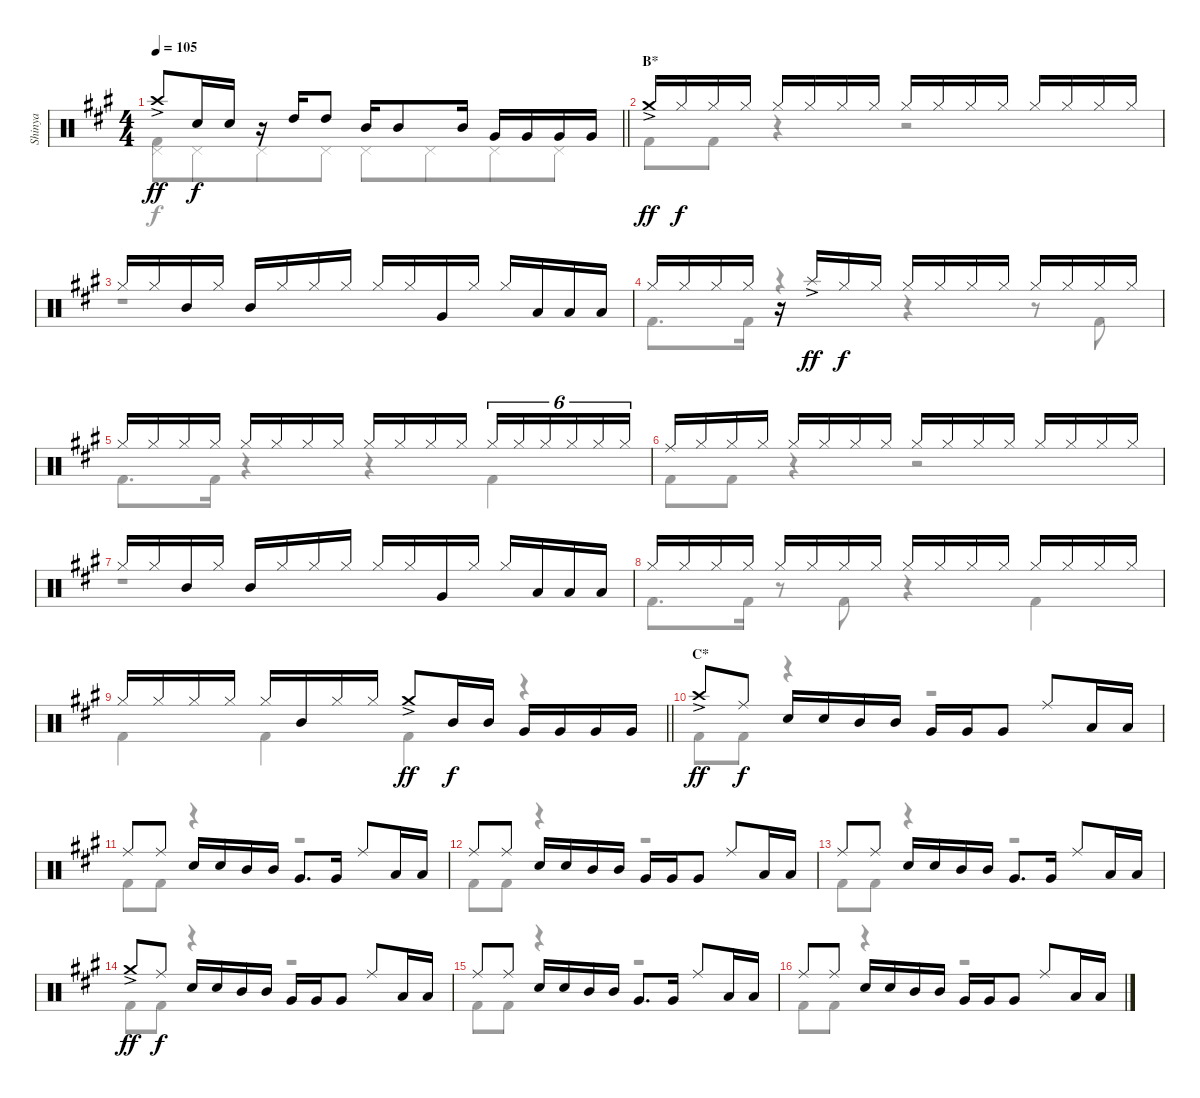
\track ("Shinya" "Shinya") {instrument percussion}
\staff {score}
\articulation defaults
\voice
\ts (4 4)
\tempo 105
\clef neutral
\barLineRight lightlight
\ks f#minor "Crash high (hit)"{ac}.8{dy ff} "Snare (hit) 2".16{dy f} "Snare (hit) 2".16
r.16 "High Tom (hit)".16 "High Tom (hit)".8 "Mid Tom (hit)".16 "Mid Tom (hit)".8 "Mid Tom (hit)".16 "Very Low Tom (hit)".16 "Very Low Tom (hit)".16 "Very Low Tom (hit)".16 "Very Low Tom (hit)".16 |
\section ("" "B*")
"Crash medium (hit)"{ac}.16{dy ff} "Hi-Hat (closed)".16{dy f} "Hi-Hat (closed)".16 "Hi-Hat (closed)".16 "Hi-Hat (closed)".16 "Hi-Hat (closed)".16 "Hi-Hat (closed)".16 "Hi-Hat (closed)".16 "Hi-Hat (closed)".16 "Hi-Hat (closed)".16 "Hi-Hat (closed)".16 "Hi-Hat (closed)".16 "Hi-Hat (closed)".16 "Hi-Hat (closed)".16 "Hi-Hat (closed)".16 "Hi-Hat (closed)".16 |
"Hi-Hat (closed)".16 "Hi-Hat (closed)".16 "Mid Tom (hit)".16 "Hi-Hat (closed)".16 "Mid Tom (hit)".16 "Hi-Hat (closed)".16 "Hi-Hat (closed)".16 "Hi-Hat (closed)".16 "Hi-Hat (closed)".16 "Hi-Hat (closed)".16 "Very Low Tom (hit)".16 "Hi-Hat (closed)".16 "Hi-Hat (closed)".16 "Low Floor Tom (hit)".16 "Low Floor Tom (hit)".16 "Low Floor Tom (hit)".16 |
"Hi-Hat (closed)".16 "Hi-Hat (closed)".16 "Hi-Hat (closed)".16 "Hi-Hat (closed)".16 r.16 "Splash (hit)"{ac}.16{dy ff} "Hi-Hat (closed)".16{dy f} "Hi-Hat (closed)".16 "Hi-Hat (closed)".16 "Hi-Hat (closed)".16 "Hi-Hat (closed)".16 "Hi-Hat (closed)".16 "Hi-Hat (closed)".16 "Hi-Hat (closed)".16 "Hi-Hat (closed)".16 "Hi-Hat (closed)".16 |
"Hi-Hat (closed)".16 "Hi-Hat (closed)".16 "Hi-Hat (closed)".16 "Hi-Hat (closed)".16 "Hi-Hat (closed)".16 "Hi-Hat (closed)".16 "Hi-Hat (closed)".16 "Hi-Hat (closed)".16 "Hi-Hat (closed)".16 "Hi-Hat (closed)".16 "Hi-Hat (closed)".16 "Hi-Hat (closed)".16 "Hi-Hat (closed)".16{tu (6 4)} "Hi-Hat (closed)".16{tu (6 4)} "Hi-Hat (closed)".16{tu (6 4)} "Hi-Hat (closed)".16{tu (6 4)} "Hi-Hat (closed)".16{tu (6 4)} "Hi-Hat (closed)".16{tu (6 4)} |
"Ride (middle)".16 "Hi-Hat (closed)".16 "Hi-Hat (closed)".16 "Hi-Hat (closed)".16 "Hi-Hat (closed)".16 "Hi-Hat (closed)".16 "Hi-Hat (closed)".16 "Hi-Hat (closed)".16 "Hi-Hat (closed)".16 "Hi-Hat (closed)".16 "Hi-Hat (closed)".16 "Hi-Hat (closed)".16 "Hi-Hat (closed)".16 "Hi-Hat (closed)".16 "Hi-Hat (closed)".16 "Hi-Hat (closed)".16 |
"Hi-Hat (closed)".16 "Hi-Hat (closed)".16 "Mid Tom (hit)".16 "Hi-Hat (closed)".16 "Mid Tom (hit)".16 "Hi-Hat (closed)".16 "Hi-Hat (closed)".16 "Hi-Hat (closed)".16 "Hi-Hat (closed)".16 "Hi-Hat (closed)".16 "Very Low Tom (hit)".16 "Hi-Hat (closed)".16 "Hi-Hat (closed)".16 "Low Floor Tom (hit)".16 "Low Floor Tom (hit)".16 "Low Floor Tom (hit)".16 |
"Hi-Hat (closed)".16 "Hi-Hat (closed)".16 "Hi-Hat (closed)".16 "Hi-Hat (closed)".16 "Hi-Hat (closed)".16 "Hi-Hat (closed)".16 "Hi-Hat (closed)".16 "Hi-Hat (closed)".16 "Hi-Hat (closed)".16 "Hi-Hat (closed)".16 "Hi-Hat (closed)".16 "Hi-Hat (closed)".16 "Hi-Hat (closed)".16 "Hi-Hat (closed)".16 "Hi-Hat (closed)".16 "Hi-Hat (closed)".16 |
\barLineRight lightlight "Hi-Hat (closed)".16 "Hi-Hat (closed)".16 "Hi-Hat (closed)".16 "Hi-Hat (closed)".16 "Hi-Hat (closed)".16 "Mid Tom (hit)".16 "Hi-Hat (closed)".16 "Hi-Hat (closed)".16 "Crash medium (hit)"{ac}.8{dy ff} "Mid Tom (hit)".16{dy f} "Mid Tom (hit)".16 "Very Low Tom (hit)".16 "Very Low Tom (hit)".16 "Very Low Tom (hit)".16 "Very Low Tom (hit)".16
|
\section ("" "C*")
"Crash high (hit)"{ac}.8{dy ff} "Ride (middle)".8{dy f} "Snare (hit) 2".16 "Snare (hit) 2".16 "Mid Tom (hit)".16 "Mid Tom (hit)".16 "Very Low Tom (hit)".16 "Very Low Tom (hit)".16 "Very Low Tom (hit)".8 "Ride (middle)".8 "Low Floor Tom (hit)".16 "Low Floor Tom (hit)".16 |
"Ride (middle)".8 "Ride (middle)".8 "Snare (hit) 2".16 "Snare (hit) 2".16 "Mid Tom (hit)".16 "Mid Tom (hit)".16 "Very Low Tom (hit)".8{d} "Very Low Tom (hit)".16 "Ride (middle)".8 "Low Floor Tom (hit)".16 "Low Floor Tom (hit)".16 |
"Ride (middle)".8 "Ride (middle)".8 "Snare (hit) 2".16 "Snare (hit) 2".16 "Mid Tom (hit)".16 "Mid Tom (hit)".16 "Very Low Tom (hit)".16 "Very Low Tom (hit)".16 "Very Low Tom (hit)".8 "Ride (middle)".8 "Low Floor Tom (hit)".16 "Low Floor Tom (hit)".16 |
"Ride (middle)".8 "Ride (middle)".8 "Snare (hit) 2".16 "Snare (hit) 2".16 "Mid Tom (hit)".16 "Mid Tom (hit)".16 "Very Low Tom (hit)".8{d} "Very Low Tom (hit)".16 "Ride (middle)".8 "Low Floor Tom (hit)".16 "Low Floor Tom (hit)".16 |
"Crash medium (hit)"{ac}.8{dy ff} "Ride (middle)".8{dy f} "Snare (hit) 2".16 "Snare (hit) 2".16 "Mid Tom (hit)".16 "Mid Tom (hit)".16 "Very Low Tom (hit)".16 "Very Low Tom (hit)".16 "Very Low Tom (hit)".8 "Ride (middle)".8 "Low Floor Tom (hit)".16 "Low Floor Tom (hit)".16 |
"Ride (middle)".8 "Ride (middle)".8 "Snare (hit) 2".16 "Snare (hit) 2".16 "Mid Tom (hit)".16 "Mid Tom (hit)".16 "Very Low Tom (hit)".8{d} "Very Low Tom (hit)".16 "Ride (middle)".8 "Low Floor Tom (hit)".16 "Low Floor Tom (hit)".16 |
"Ride (middle)".8 "Ride (middle)".8 "Snare (hit) 2".16 "Snare (hit) 2".16 "Mid Tom (hit)".16 "Mid Tom (hit)".16 "Very Low Tom (hit)".16 "Very Low Tom (hit)".16 "Very Low Tom (hit)".8 "Ride (middle)".8 "Low Floor Tom (hit)".16 "Low Floor Tom (hit)".16
\voice
\clef neutral
\ottava regular
\simile none
\barLineRight lightlight
\ks f#minor
("Pedal Hi-Hat (hit)" "Kick (hit) 2").8{dy f} "Pedal Hi-Hat (hit)".8{beam merge} "Pedal Hi-Hat (hit)".8 "Pedal Hi-Hat (hit)".8 "Pedal Hi-Hat (hit)".8 "Pedal Hi-Hat (hit)".8{beam merge} "Pedal Hi-Hat (hit)".8 "Pedal Hi-Hat (hit)".8 |
"Kick (hit) 2".8 "Kick (hit) 2".8 r.4 r.2 |
r.1 |
"Kick (hit) 2".8{d} "Kick (hit) 2".16 r.4 r.4 r.8 "Kick (hit) 2".8 |
"Kick (hit) 2".8{d} "Kick (hit) 2".16 r.4 r.4 "Kick (hit) 2".4 |
"Kick (hit) 2".8 "Kick (hit) 2".8 r.4 r.2 |
r.1 |
"Kick (hit) 2".8{d} "Kick (hit) 2".16 r.8 "Kick (hit) 2".8 r.4 "Kick (hit) 2".4 |
\barLineRight lightlight "Kick (hit) 2".4 "Kick (hit) 2".4 "Kick (hit) 2".4
r.4 |
"Kick (hit) 2".8 "Kick (hit) 2".8 r.4 r.2 |
"Kick (hit) 2".8 "Kick (hit) 2".8 r.4 r.2 |
"Kick (hit) 2".8 "Kick (hit) 2".8 r.4 r.2 |
"Kick (hit) 2".8 "Kick (hit) 2".8 r.4 r.2 |
"Kick (hit) 2".8 "Kick (hit) 2".8 r.4 r.2 |
"Kick (hit) 2".8 "Kick (hit) 2".8 r.4 r.2 |
"Kick (hit) 2".8 "Kick (hit) 2".8 r.4 r.2
